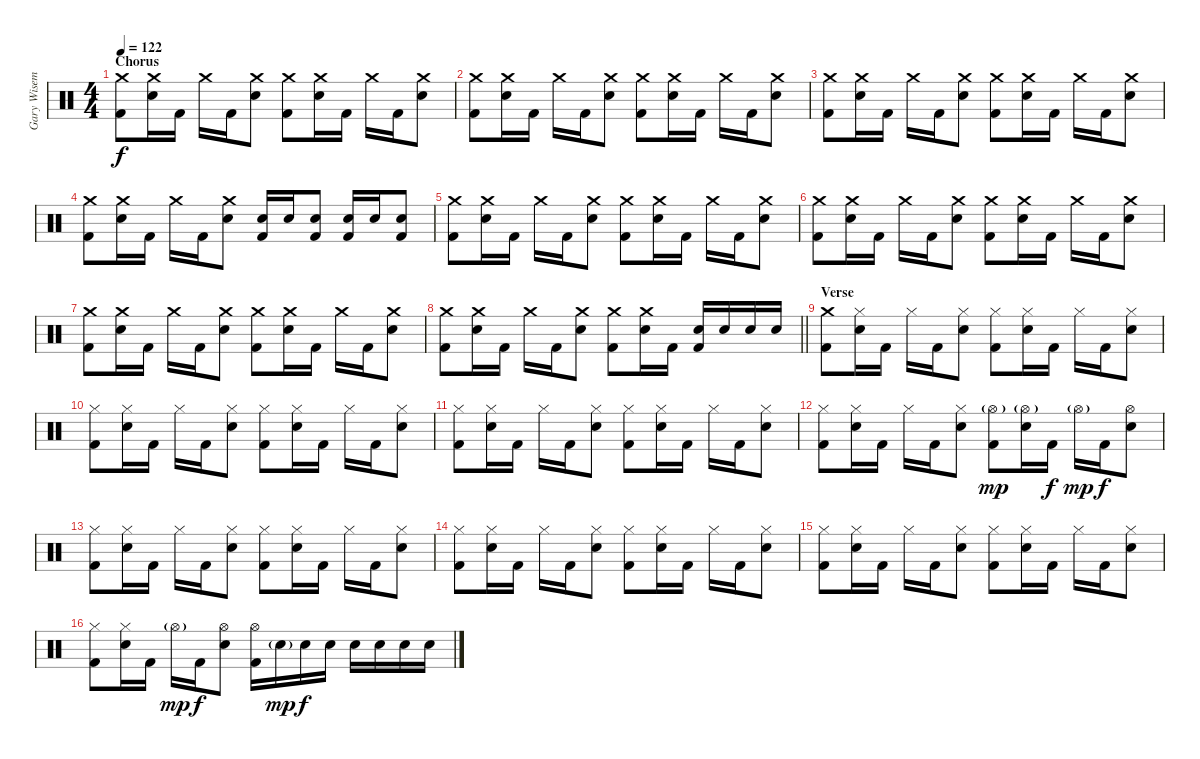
\track ("Gary Wiseman - Drums" "Gary Wisem") {instrument percussion}
\staff {score}
\articulation defaults
\ts (4 4)
\section ("" "Chorus")
\tempo 122
\clef neutral
\ks c
("Crash medium (hit)" "Kick (hit) 2").8{dy f} ("Crash medium (hit)" "Electric Snare (hit)").16 "Kick (hit) 2".16 "Crash medium (hit)".16 "Kick (hit) 2".16 ("Crash medium (hit)" "Electric Snare (hit)").8 ("Crash medium (hit)" "Kick (hit) 2").8 ("Crash medium (hit)" "Electric Snare (hit)").16 "Kick (hit) 2".16 "Crash medium (hit)".16 "Kick (hit) 2".16 ("Crash medium (hit)" "Electric Snare (hit)").8 |
("Crash medium (hit)" "Kick (hit) 2").8 ("Crash medium (hit)" "Electric Snare (hit)").16 "Kick (hit) 2".16 "Crash medium (hit)".16 "Kick (hit) 2".16 ("Crash medium (hit)" "Electric Snare (hit)").8 ("Crash medium (hit)" "Kick (hit) 2").8 ("Crash medium (hit)" "Electric Snare (hit)").16 "Kick (hit) 2".16 "Crash medium (hit)".16 "Kick (hit) 2".16 ("Crash medium (hit)" "Electric Snare (hit)").8 |
("Crash medium (hit)" "Kick (hit) 2").8 ("Crash medium (hit)" "Electric Snare (hit)").16 "Kick (hit) 2".16 "Crash medium (hit)".16 "Kick (hit) 2".16 ("Crash medium (hit)" "Electric Snare (hit)").8 ("Crash medium (hit)" "Kick (hit) 2").8 ("Crash medium (hit)" "Electric Snare (hit)").16 "Kick (hit) 2".16 "Crash medium (hit)".16 "Kick (hit) 2".16 ("Crash medium (hit)" "Electric Snare (hit)").8 |
("Crash medium (hit)" "Kick (hit) 2").8 ("Crash medium (hit)" "Electric Snare (hit)").16 "Kick (hit) 2".16 "Crash medium (hit)".16 "Kick (hit) 2".16 ("Crash medium (hit)" "Electric Snare (hit)").8 ("Electric Snare (hit)" "Kick (hit) 2").16 "Electric Snare (hit)".16 ("Electric Snare (hit)" "Kick (hit) 2").8 ("Electric Snare (hit)" "Kick (hit) 2").16 "Electric Snare (hit)".16 ("Electric Snare (hit)" "Kick (hit) 2").8 |
("Crash medium (hit)" "Kick (hit) 2").8 ("Crash medium (hit)" "Electric Snare (hit)").16 "Kick (hit) 2".16 "Crash medium (hit)".16 "Kick (hit) 2".16 ("Crash medium (hit)" "Electric Snare (hit)").8 ("Crash medium (hit)" "Kick (hit) 2").8 ("Crash medium (hit)" "Electric Snare (hit)").16 "Kick (hit) 2".16 "Crash medium (hit)".16 "Kick (hit) 2".16 ("Crash medium (hit)" "Electric Snare (hit)").8 |
("Crash medium (hit)" "Kick (hit) 2").8 ("Crash medium (hit)" "Electric Snare (hit)").16 "Kick (hit) 2".16 "Crash medium (hit)".16 "Kick (hit) 2".16 ("Crash medium (hit)" "Electric Snare (hit)").8 ("Crash medium (hit)" "Kick (hit) 2").8 ("Crash medium (hit)" "Electric Snare (hit)").16 "Kick (hit) 2".16 "Crash medium (hit)".16 "Kick (hit) 2".16 ("Crash medium (hit)" "Electric Snare (hit)").8 |
("Crash medium (hit)" "Kick (hit) 2").8 ("Crash medium (hit)" "Electric Snare (hit)").16 "Kick (hit) 2".16 "Crash medium (hit)".16 "Kick (hit) 2".16 ("Crash medium (hit)" "Electric Snare (hit)").8 ("Crash medium (hit)" "Kick (hit) 2").8 ("Crash medium (hit)" "Electric Snare (hit)").16 "Kick (hit) 2".16 "Crash medium (hit)".16 "Kick (hit) 2".16 ("Crash medium (hit)" "Electric Snare (hit)").8 |
\barLineRight lightlight
("Crash medium (hit)" "Kick (hit) 2").8 ("Crash medium (hit)" "Electric Snare (hit)").16 "Kick (hit) 2".16 "Crash medium (hit)".16 "Kick (hit) 2".16 ("Crash medium (hit)" "Electric Snare (hit)").8 ("Crash medium (hit)" "Kick (hit) 2").8 ("Crash medium (hit)" "Electric Snare (hit)").16 "Kick (hit) 2".16 ("Electric Snare (hit)" "Kick (hit) 2").16 "Electric Snare (hit)".16 "Electric Snare (hit)".16 "Electric Snare (hit)".16 |
\section ("" "Verse")
("Crash medium (hit)" "Kick (hit) 2").8 ("Hi-Hat (closed)" "Electric Snare (hit)").16 "Kick (hit) 2".16 "Hi-Hat (closed)".16 "Kick (hit) 2".16 ("Hi-Hat (closed)" "Electric Snare (hit)").8 ("Hi-Hat (closed)" "Kick (hit) 2").8 ("Hi-Hat (closed)" "Electric Snare (hit)").16 "Kick (hit) 2".16 "Hi-Hat (closed)".16 "Kick (hit) 2".16 ("Hi-Hat (closed)" "Electric Snare (hit)").8 |
("Hi-Hat (closed)" "Kick (hit) 2").8 ("Hi-Hat (closed)" "Electric Snare (hit)").16 "Kick (hit) 2".16 "Hi-Hat (closed)".16 "Kick (hit) 2".16 ("Hi-Hat (closed)" "Electric Snare (hit)").8 ("Hi-Hat (closed)" "Kick (hit) 2").8 ("Hi-Hat (closed)" "Electric Snare (hit)").16 "Kick (hit) 2".16 "Hi-Hat (closed)".16 "Kick (hit) 2".16 ("Hi-Hat (closed)" "Electric Snare (hit)").8 |
("Hi-Hat (closed)" "Kick (hit) 2").8 ("Hi-Hat (closed)" "Electric Snare (hit)").16 "Kick (hit) 2".16 "Hi-Hat (closed)".16 "Kick (hit) 2".16 ("Hi-Hat (closed)" "Electric Snare (hit)").8 ("Hi-Hat (closed)" "Kick (hit) 2").8 ("Hi-Hat (closed)" "Electric Snare (hit)").16 "Kick (hit) 2".16 "Hi-Hat (closed)".16 "Kick (hit) 2".16 ("Hi-Hat (closed)" "Electric Snare (hit)").8 |
("Hi-Hat (closed)" "Kick (hit) 2").8 ("Hi-Hat (closed)" "Electric Snare (hit)").16 "Kick (hit) 2".16 "Hi-Hat (closed)".16 "Kick (hit) 2".16 ("Hi-Hat (closed)" "Electric Snare (hit)").8 ("Hi-Hat (open)"{g} "Kick (hit) 2").8{dy mp} ("Hi-Hat (open)"{g} "Electric Snare (hit)").16 "Kick (hit) 2".16{dy f} "Hi-Hat (open)"{g}.16{dy mp} "Kick (hit) 2".16{dy f} ("Hi-Hat (open)" "Electric Snare (hit)").8 |
("Hi-Hat (closed)" "Kick (hit) 2").8 ("Hi-Hat (closed)" "Electric Snare (hit)").16 "Kick (hit) 2".16 "Hi-Hat (closed)".16 "Kick (hit) 2".16 ("Hi-Hat (closed)" "Electric Snare (hit)").8 ("Hi-Hat (closed)" "Kick (hit) 2").8 ("Hi-Hat (closed)" "Electric Snare (hit)").16 "Kick (hit) 2".16 "Hi-Hat (closed)".16 "Kick (hit) 2".16 ("Hi-Hat (closed)" "Electric Snare (hit)").8 |
("Hi-Hat (closed)" "Kick (hit) 2").8 ("Hi-Hat (closed)" "Electric Snare (hit)").16 "Kick (hit) 2".16 "Hi-Hat (closed)".16 "Kick (hit) 2".16 ("Hi-Hat (closed)" "Electric Snare (hit)").8 ("Hi-Hat (closed)" "Kick (hit) 2").8 ("Hi-Hat (closed)" "Electric Snare (hit)").16 "Kick (hit) 2".16 "Hi-Hat (closed)".16 "Kick (hit) 2".16 ("Hi-Hat (closed)" "Electric Snare (hit)").8 |
("Hi-Hat (closed)" "Kick (hit) 2").8 ("Hi-Hat (closed)" "Electric Snare (hit)").16 "Kick (hit) 2".16 "Hi-Hat (closed)".16 "Kick (hit) 2".16 ("Hi-Hat (closed)" "Electric Snare (hit)").8 ("Hi-Hat (closed)" "Kick (hit) 2").8 ("Hi-Hat (closed)" "Electric Snare (hit)").16 "Kick (hit) 2".16 "Hi-Hat (closed)".16 "Kick (hit) 2".16 ("Hi-Hat (closed)" "Electric Snare (hit)").8 |
("Hi-Hat (closed)" "Kick (hit) 2").8 ("Hi-Hat (closed)" "Electric Snare (hit)").16 "Kick (hit) 2".16 "Hi-Hat (open)"{g}.16{dy mp} "Kick (hit) 2".16{dy f} ("Hi-Hat (open)" "Electric Snare (hit)").8 ("Hi-Hat (open)" "Kick (hit) 2").16 "Electric Snare (hit)"{g}.16{dy mp} "Electric Snare (hit)".16{dy f} "Electric Snare (hit)".16 "Electric Snare (hit)".16 "Electric Snare (hit)".16 "Electric Snare (hit)".16 "Electric Snare (hit)".16
